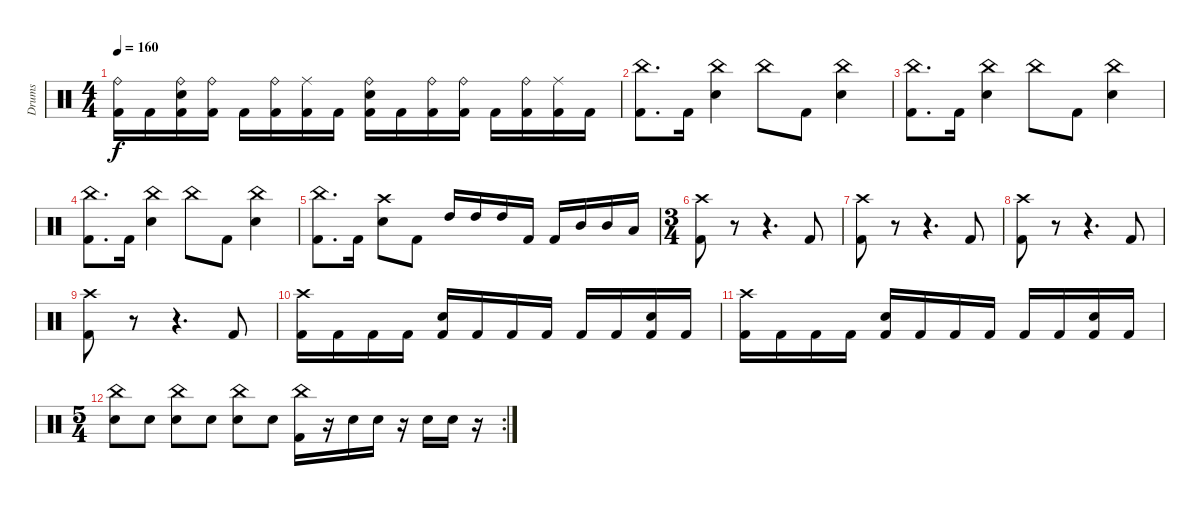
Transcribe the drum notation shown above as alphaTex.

\track ("Drums" "Drums") {instrument percussion}
\staff {score}
\articulation defaults
\ts (4 4)
\tempo 160
\clef neutral
\ks c
("Ride (bell)" "Kick (hit) 2").16{dy f} "Kick (hit) 2".16 ("Ride (bell)" "Snare (hit) 2" "Kick (hit) 2").16 ("Ride (bell)" "Kick (hit) 2").16 "Kick (hit) 2".16 ("Ride (bell)" "Kick (hit) 2").16 ("Ride (middle)" "Kick (hit) 2").16 "Kick (hit) 2".16 ("Ride (bell)" "Snare (hit) 2" "Kick (hit) 2").16 "Kick (hit) 2".16 ("Ride (bell)" "Kick (hit) 2").16 ("Ride (bell)" "Kick (hit) 2").16 "Kick (hit) 2".16 ("Ride (bell)" "Kick (hit) 2").16 ("Ride (middle)" "Kick (hit) 2").16 "Kick (hit) 2".16 |
("China (hit)" "Kick (hit) 2").8{d} "Kick (hit) 2".16 ("China (hit)" "Snare (hit) 2").4 "China (hit)".8 "Kick (hit) 2".8 ("China (hit)" "Snare (hit) 2").4 |
("China (hit)" "Kick (hit) 2").8{d} "Kick (hit) 2".16 ("China (hit)" "Snare (hit) 2").4 "China (hit)".8 "Kick (hit) 2".8 ("China (hit)" "Snare (hit) 2").4 |
("China (hit)" "Kick (hit) 2").8{d} "Kick (hit) 2".16 ("China (hit)" "Snare (hit) 2").4 "China (hit)".8 "Kick (hit) 2".8 ("China (hit)" "Snare (hit) 2").4 |
("China (hit)" "Kick (hit) 2").8{d} "Kick (hit) 2".16 ("Crash high (hit)" "Snare (hit) 2").8 "Kick (hit) 2".8 "High Tom (hit)".16 "High Tom (hit)".16 "High Tom (hit)".16 "Kick (hit) 2".16 "Kick (hit) 2".16 "Mid Tom (hit)".16 "Mid Tom (hit)".16 "Low Tom (hit)".16 |
\ts (3 4)
("Crash high (hit)" "Kick (hit) 2").8 r.8 r.4{d} "Kick (hit) 2".8 |
("Crash high (hit)" "Kick (hit) 2").8 r.8 r.4{d} "Kick (hit) 2".8 |
("Crash high (hit)" "Kick (hit) 2").8 r.8 r.4{d} "Kick (hit) 2".8 |
("Crash high (hit)" "Kick (hit) 2").8 r.8 r.4{d} "Kick (hit) 2".8 |
("Crash high (hit)" "Kick (hit) 2").16 "Kick (hit) 2".16 "Kick (hit) 2".16 "Kick (hit) 2".16 ("Snare (hit) 2" "Kick (hit) 2").16 "Kick (hit) 2".16 "Kick (hit) 2".16 "Kick (hit) 2".16 "Kick (hit) 2".16 "Kick (hit) 2".16 ("Snare (hit) 2" "Kick (hit) 2").16 "Kick (hit) 2".16 |
("Crash high (hit)" "Kick (hit) 2").16 "Kick (hit) 2".16 "Kick (hit) 2".16 "Kick (hit) 2".16 ("Snare (hit) 2" "Kick (hit) 2").16 "Kick (hit) 2".16 "Kick (hit) 2".16 "Kick (hit) 2".16 "Kick (hit) 2".16 "Kick (hit) 2".16 ("Snare (hit) 2" "Kick (hit) 2").16 "Kick (hit) 2".16 |
\rc 2
\ts (5 4)
("China (hit)" "Snare (hit) 2").8 "Snare (hit) 2".8 ("China (hit)" "Snare (hit) 2").8 "Snare (hit) 2".8 ("China (hit)" "Snare (hit) 2").8 "Snare (hit) 2".8 ("China (hit)" "Kick (hit) 2").16 r.16 "Snare (hit) 2".16 "Snare (hit) 2".16 r.16 "Snare (hit) 2".16 "Snare (hit) 2".16 r.16
